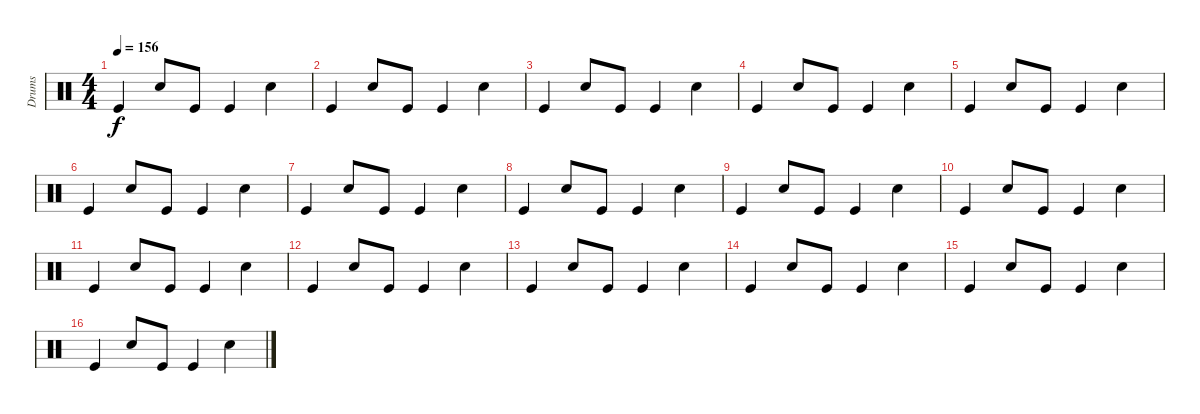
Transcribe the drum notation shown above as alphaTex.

\track ("Drums" "Drums") {instrument percussion}
\staff {score}
\articulation defaults
\ts (4 4)
\tempo 156
\clef neutral
\ks c "Kick (hit)".4{dy f} "Snare (hit) 2".8 "Kick (hit)".8 "Kick (hit)".4 "Snare (hit) 2".4
|
"Kick (hit)".4 "Snare (hit) 2".8 "Kick (hit)".8 "Kick (hit)".4 "Snare (hit) 2".4 |
"Kick (hit)".4 "Snare (hit) 2".8 "Kick (hit)".8 "Kick (hit)".4 "Snare (hit) 2".4 |
"Kick (hit)".4 "Snare (hit) 2".8 "Kick (hit)".8 "Kick (hit)".4 "Snare (hit) 2".4 |
"Kick (hit)".4 "Snare (hit) 2".8 "Kick (hit)".8 "Kick (hit)".4 "Snare (hit) 2".4 |
"Kick (hit)".4 "Snare (hit) 2".8 "Kick (hit)".8 "Kick (hit)".4 "Snare (hit) 2".4 |
"Kick (hit)".4 "Snare (hit) 2".8 "Kick (hit)".8 "Kick (hit)".4 "Snare (hit) 2".4 |
"Kick (hit)".4 "Snare (hit) 2".8 "Kick (hit)".8 "Kick (hit)".4 "Snare (hit) 2".4 |
"Kick (hit)".4 "Snare (hit) 2".8 "Kick (hit)".8 "Kick (hit)".4 "Snare (hit) 2".4 |
"Kick (hit)".4 "Snare (hit) 2".8 "Kick (hit)".8 "Kick (hit)".4 "Snare (hit) 2".4 |
"Kick (hit)".4 "Snare (hit) 2".8 "Kick (hit)".8 "Kick (hit)".4 "Snare (hit) 2".4 |
"Kick (hit)".4 "Snare (hit) 2".8 "Kick (hit)".8 "Kick (hit)".4 "Snare (hit) 2".4 |
"Kick (hit)".4 "Snare (hit) 2".8 "Kick (hit)".8 "Kick (hit)".4 "Snare (hit) 2".4 |
"Kick (hit)".4 "Snare (hit) 2".8 "Kick (hit)".8 "Kick (hit)".4 "Snare (hit) 2".4 |
"Kick (hit)".4 "Snare (hit) 2".8 "Kick (hit)".8 "Kick (hit)".4 "Snare (hit) 2".4 |
"Kick (hit)".4 "Snare (hit) 2".8 "Kick (hit)".8 "Kick (hit)".4 "Snare (hit) 2".4
